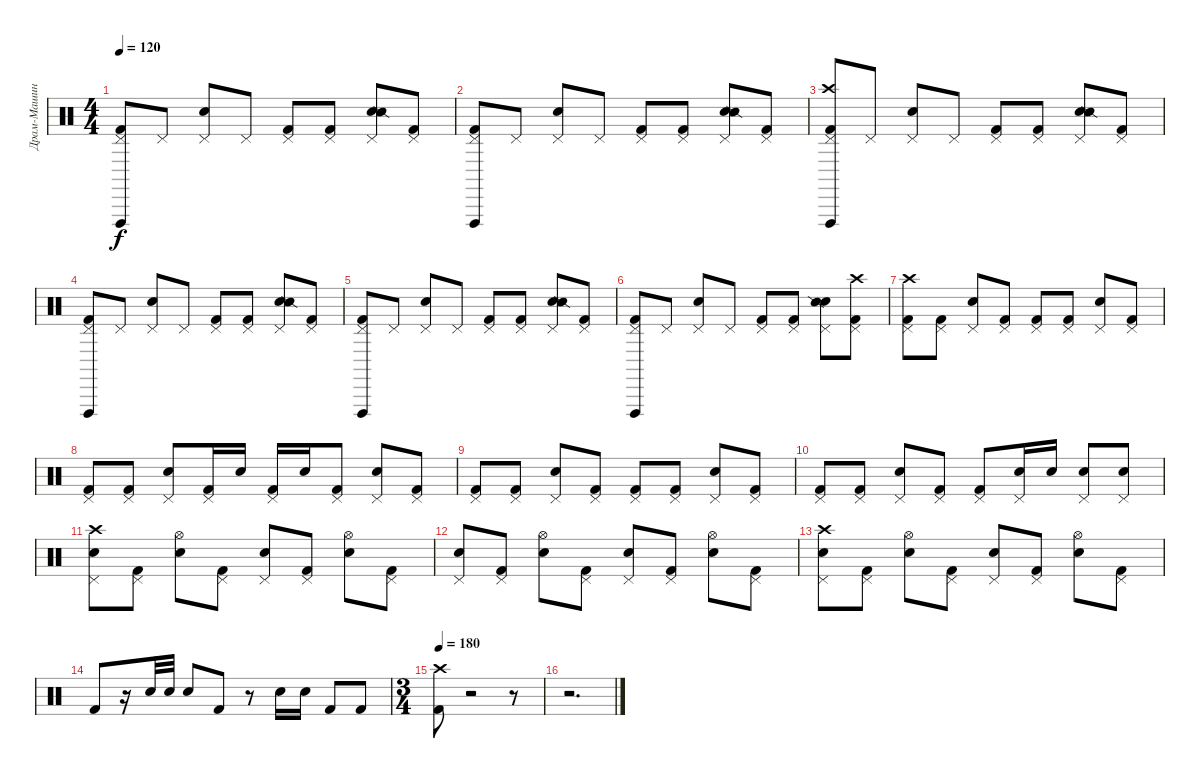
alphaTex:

\track ("Драм-Машина" "Драм-Машин") {instrument percussion}
\staff {score}
\articulation defaults
\ts (4 4)
\tempo 120
\clef neutral
\ks c
("Vibraslap (hit)" "Kick (hit) 2" "Pedal Hi-Hat (hit)").8{dy f} "Pedal Hi-Hat (hit)".8 ("Electric Snare (hit)" "Pedal Hi-Hat (hit)").8 "Pedal Hi-Hat (hit)".8 ("Kick (hit) 2" "Pedal Hi-Hat (hit)").8 ("Kick (hit) 2" "Pedal Hi-Hat (hit)").8 ("Electric Snare (hit)" "Snare (side stick) 2" "Pedal Hi-Hat (hit)").8 ("Kick (hit) 2" "Pedal Hi-Hat (hit)").8 |
("Vibraslap (hit)" "Kick (hit) 2" "Pedal Hi-Hat (hit)").8 "Pedal Hi-Hat (hit)".8 ("Electric Snare (hit)" "Pedal Hi-Hat (hit)").8 "Pedal Hi-Hat (hit)".8 ("Kick (hit) 2" "Pedal Hi-Hat (hit)").8 ("Kick (hit) 2" "Pedal Hi-Hat (hit)").8 ("Electric Snare (hit)" "Snare (side stick) 2" "Pedal Hi-Hat (hit)").8 ("Kick (hit) 2" "Pedal Hi-Hat (hit)").8 |
("Crash high (hit)" "Vibraslap (hit)" "Kick (hit) 2" "Pedal Hi-Hat (hit)").8 "Pedal Hi-Hat (hit)".8 ("Electric Snare (hit)" "Pedal Hi-Hat (hit)").8 "Pedal Hi-Hat (hit)".8 ("Kick (hit) 2" "Pedal Hi-Hat (hit)").8 ("Kick (hit) 2" "Pedal Hi-Hat (hit)").8 ("Electric Snare (hit)" "Snare (side stick) 2" "Pedal Hi-Hat (hit)").8 ("Kick (hit) 2" "Pedal Hi-Hat (hit)").8 |
("Vibraslap (hit)" "Kick (hit) 2" "Pedal Hi-Hat (hit)").8 "Pedal Hi-Hat (hit)".8 ("Electric Snare (hit)" "Pedal Hi-Hat (hit)").8 "Pedal Hi-Hat (hit)".8 ("Kick (hit) 2" "Pedal Hi-Hat (hit)").8 ("Kick (hit) 2" "Pedal Hi-Hat (hit)").8 ("Electric Snare (hit)" "Snare (side stick) 2" "Pedal Hi-Hat (hit)").8 ("Kick (hit) 2" "Pedal Hi-Hat (hit)").8 |
("Vibraslap (hit)" "Kick (hit) 2" "Pedal Hi-Hat (hit)").8 "Pedal Hi-Hat (hit)".8 ("Electric Snare (hit)" "Pedal Hi-Hat (hit)").8 "Pedal Hi-Hat (hit)".8 ("Kick (hit) 2" "Pedal Hi-Hat (hit)").8 ("Kick (hit) 2" "Pedal Hi-Hat (hit)").8 ("Electric Snare (hit)" "Snare (side stick) 2" "Pedal Hi-Hat (hit)").8 ("Kick (hit) 2" "Pedal Hi-Hat (hit)").8 |
("Vibraslap (hit)" "Kick (hit) 2" "Pedal Hi-Hat (hit)").8 "Pedal Hi-Hat (hit)".8 ("Electric Snare (hit)" "Pedal Hi-Hat (hit)").8 "Pedal Hi-Hat (hit)".8 ("Kick (hit) 2" "Pedal Hi-Hat (hit)").8 ("Kick (hit) 2" "Pedal Hi-Hat (hit)").8 ("Electric Snare (hit)" "Snare (side stick) 2" "Pedal Hi-Hat (hit)").8 ("Kick (hit) 2" "Crash high (hit)" "Pedal Hi-Hat (hit)").8 |
("Crash high (hit)" "Pedal Hi-Hat (hit)" "Kick (hit) 2").8 ("Kick (hit) 2" "Pedal Hi-Hat (hit)").8 ("Pedal Hi-Hat (hit)" "Electric Snare (hit)").8 ("Kick (hit) 2" "Pedal Hi-Hat (hit)").8 ("Pedal Hi-Hat (hit)" "Kick (hit) 2").8 ("Kick (hit) 2" "Pedal Hi-Hat (hit)").8 ("Pedal Hi-Hat (hit)" "Electric Snare (hit)").8 ("Kick (hit) 2" "Pedal Hi-Hat (hit)").8 |
("Pedal Hi-Hat (hit)" "Kick (hit) 2").8 ("Kick (hit) 2" "Pedal Hi-Hat (hit)").8 ("Pedal Hi-Hat (hit)" "Electric Snare (hit)").8 ("Kick (hit) 2" "Pedal Hi-Hat (hit)").16 "Electric Snare (hit)".16 ("Pedal Hi-Hat (hit)" "Kick (hit) 2").16 "Electric Snare (hit)".16 ("Kick (hit) 2" "Pedal Hi-Hat (hit)").8 ("Pedal Hi-Hat (hit)" "Electric Snare (hit)").8 ("Kick (hit) 2" "Pedal Hi-Hat (hit)").8 |
("Pedal Hi-Hat (hit)" "Kick (hit) 2").8 ("Kick (hit) 2" "Pedal Hi-Hat (hit)").8 ("Pedal Hi-Hat (hit)" "Electric Snare (hit)").8 ("Kick (hit) 2" "Pedal Hi-Hat (hit)").8 ("Pedal Hi-Hat (hit)" "Kick (hit) 2").8 ("Kick (hit) 2" "Pedal Hi-Hat (hit)").8 ("Pedal Hi-Hat (hit)" "Electric Snare (hit)").8 ("Kick (hit) 2" "Pedal Hi-Hat (hit)").8 |
("Pedal Hi-Hat (hit)" "Kick (hit) 2").8 ("Kick (hit) 2" "Pedal Hi-Hat (hit)").8 ("Pedal Hi-Hat (hit)" "Electric Snare (hit)").8 ("Kick (hit) 2" "Pedal Hi-Hat (hit)").8 ("Pedal Hi-Hat (hit)" "Kick (hit) 2").8 ("Pedal Hi-Hat (hit)" "Electric Snare (hit)").16 "Electric Snare (hit)".16 ("Pedal Hi-Hat (hit)" "Electric Snare (hit)").8 ("Electric Snare (hit)" "Pedal Hi-Hat (hit)").8 |
("Crash high (hit)" "Pedal Hi-Hat (hit)" "Electric Snare (hit)").8 ("Kick (hit) 2" "Pedal Hi-Hat (hit)").8 ("Hi-Hat (open)" "Electric Snare (hit)").8 ("Kick (hit) 2" "Pedal Hi-Hat (hit)").8 ("Pedal Hi-Hat (hit)" "Electric Snare (hit)").8 ("Kick (hit) 2" "Pedal Hi-Hat (hit)").8 ("Hi-Hat (open)" "Electric Snare (hit)").8 ("Kick (hit) 2" "Pedal Hi-Hat (hit)").8 |
("Pedal Hi-Hat (hit)" "Electric Snare (hit)").8 ("Kick (hit) 2" "Pedal Hi-Hat (hit)").8 ("Hi-Hat (open)" "Electric Snare (hit)").8 ("Kick (hit) 2" "Pedal Hi-Hat (hit)").8 ("Pedal Hi-Hat (hit)" "Electric Snare (hit)").8 ("Kick (hit) 2" "Pedal Hi-Hat (hit)").8 ("Hi-Hat (open)" "Electric Snare (hit)").8 ("Kick (hit) 2" "Pedal Hi-Hat (hit)").8 |
("Crash high (hit)" "Pedal Hi-Hat (hit)" "Electric Snare (hit)").8 ("Kick (hit) 2" "Pedal Hi-Hat (hit)").8 ("Hi-Hat (open)" "Electric Snare (hit)").8 ("Kick (hit) 2" "Pedal Hi-Hat (hit)").8 ("Pedal Hi-Hat (hit)" "Electric Snare (hit)").8 ("Kick (hit) 2" "Pedal Hi-Hat (hit)").8 ("Hi-Hat (open)" "Electric Snare (hit)").8 ("Kick (hit) 2" "Pedal Hi-Hat (hit)").8 |
"Kick (hit) 2".8 r.16 "Electric Snare (hit)".32 "Electric Snare (hit)".32 "Electric Snare (hit)".8 "Kick (hit) 2".8 r.8 "Electric Snare (hit)".16 "Electric Snare (hit)".16 "Kick (hit) 2".8 "Kick (hit) 2".8 |
\ts (3 4)
\tempo 180
("Crash high (hit)" "Kick (hit) 2").8 r.2 r.8 |
r.2{d}
